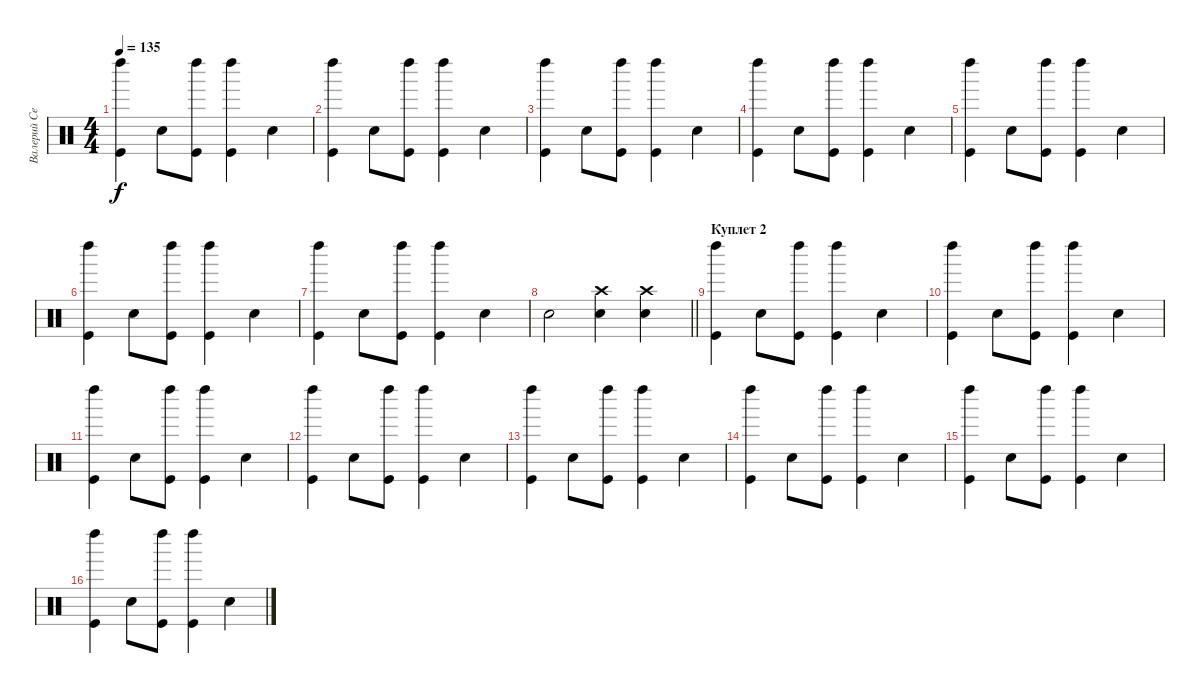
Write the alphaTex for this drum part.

\track ("Валерий Северин" "Валерий Се") {instrument percussion}
\staff {score}
\articulation defaults
\ts (4 4)
\tempo 135
\clef neutral
\ks c
("Kick (hit)" "Left Maraca (hit)").4{dy f} "Snare (hit) 2".8 ("Kick (hit)" "Left Maraca (hit)").8 ("Kick (hit)" "Left Maraca (hit)").4 "Snare (hit) 2".4 |
("Kick (hit)" "Left Maraca (hit)").4 "Snare (hit) 2".8 ("Kick (hit)" "Left Maraca (hit)").8 ("Kick (hit)" "Left Maraca (hit)").4 "Snare (hit) 2".4 |
("Kick (hit)" "Left Maraca (hit)").4 "Snare (hit) 2".8 ("Kick (hit)" "Left Maraca (hit)").8 ("Kick (hit)" "Left Maraca (hit)").4 "Snare (hit) 2".4 |
("Kick (hit)" "Left Maraca (hit)").4 "Snare (hit) 2".8 ("Kick (hit)" "Left Maraca (hit)").8 ("Kick (hit)" "Left Maraca (hit)").4 "Snare (hit) 2".4 |
("Kick (hit)" "Left Maraca (hit)").4 "Snare (hit) 2".8 ("Kick (hit)" "Left Maraca (hit)").8 ("Kick (hit)" "Left Maraca (hit)").4 "Snare (hit) 2".4 |
("Kick (hit)" "Left Maraca (hit)").4 "Snare (hit) 2".8 ("Kick (hit)" "Left Maraca (hit)").8 ("Kick (hit)" "Left Maraca (hit)").4 "Snare (hit) 2".4 |
("Kick (hit)" "Left Maraca (hit)").4 "Snare (hit) 2".8 ("Kick (hit)" "Left Maraca (hit)").8 ("Kick (hit)" "Left Maraca (hit)").4 "Snare (hit) 2".4 |
\barLineRight lightlight "Snare (hit) 2".2
("Snare (hit) 2" "Crash high (hit)").4 ("Snare (hit) 2" "Crash high (hit)").4 |
\section ("" "Куплет 2")
("Kick (hit)" "Left Maraca (hit)").4 "Snare (hit) 2".8 ("Kick (hit)" "Left Maraca (hit)").8 ("Kick (hit)" "Left Maraca (hit)").4 "Snare (hit) 2".4 |
("Kick (hit)" "Left Maraca (hit)").4 "Snare (hit) 2".8 ("Kick (hit)" "Left Maraca (hit)").8 ("Kick (hit)" "Left Maraca (hit)").4 "Snare (hit) 2".4 |
("Kick (hit)" "Left Maraca (hit)").4 "Snare (hit) 2".8 ("Kick (hit)" "Left Maraca (hit)").8 ("Kick (hit)" "Left Maraca (hit)").4 "Snare (hit) 2".4 |
("Kick (hit)" "Left Maraca (hit)").4 "Snare (hit) 2".8 ("Kick (hit)" "Left Maraca (hit)").8 ("Kick (hit)" "Left Maraca (hit)").4 "Snare (hit) 2".4 |
("Kick (hit)" "Left Maraca (hit)").4 "Snare (hit) 2".8 ("Kick (hit)" "Left Maraca (hit)").8 ("Kick (hit)" "Left Maraca (hit)").4 "Snare (hit) 2".4 |
("Kick (hit)" "Left Maraca (hit)").4 "Snare (hit) 2".8 ("Kick (hit)" "Left Maraca (hit)").8 ("Kick (hit)" "Left Maraca (hit)").4 "Snare (hit) 2".4 |
("Kick (hit)" "Left Maraca (hit)").4 "Snare (hit) 2".8 ("Kick (hit)" "Left Maraca (hit)").8 ("Kick (hit)" "Left Maraca (hit)").4 "Snare (hit) 2".4 |
("Kick (hit)" "Left Maraca (hit)").4 "Snare (hit) 2".8 ("Kick (hit)" "Left Maraca (hit)").8 ("Kick (hit)" "Left Maraca (hit)").4 "Snare (hit) 2".4
